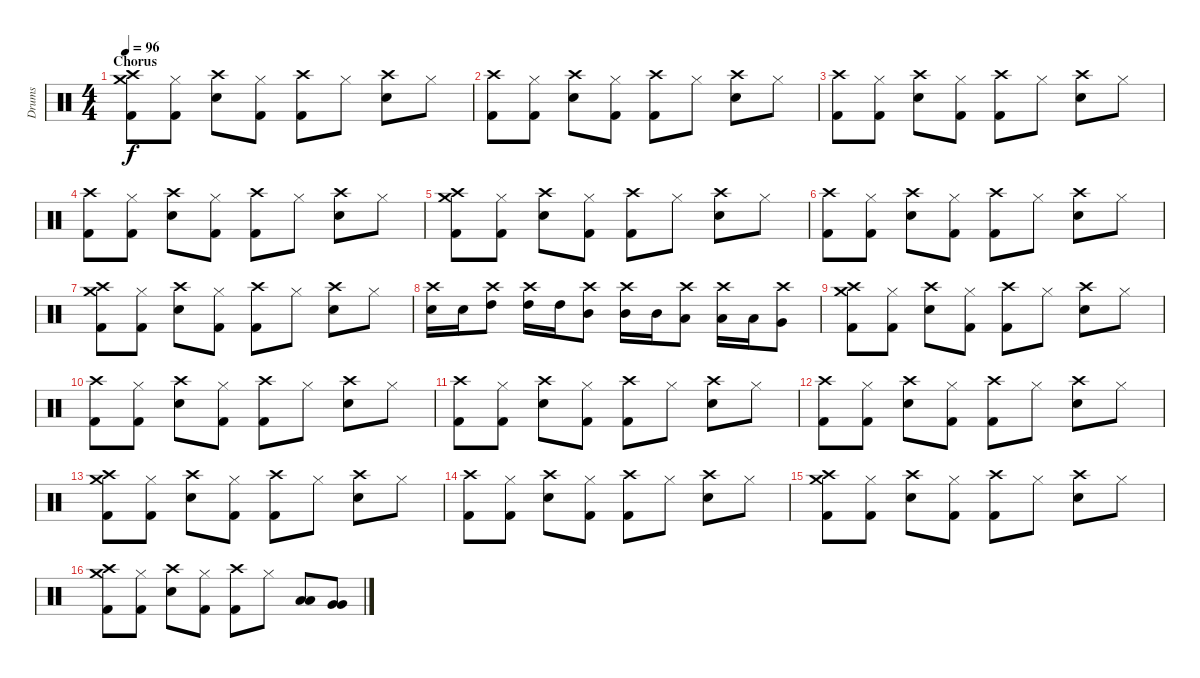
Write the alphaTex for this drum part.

\track ("Drums" "Drums") {instrument percussion}
\staff {score}
\articulation defaults
\ts (4 4)
\section ("" "Chorus")
\tempo 96
\clef neutral
\ks c
("Crash high (hit)" "Crash medium (hit)" "Kick (hit) 2").8{dy f} ("Hi-Hat (closed)" "Kick (hit) 2").8 ("Crash high (hit)" "Electric Snare (hit)").8 ("Hi-Hat (closed)" "Kick (hit) 2").8 ("Crash high (hit)" "Kick (hit) 2").8 "Hi-Hat (closed)".8 ("Crash high (hit)" "Electric Snare (hit)").8 "Hi-Hat (closed)".8 |
("Crash high (hit)" "Kick (hit) 2").8 ("Hi-Hat (closed)" "Kick (hit) 2").8 ("Crash high (hit)" "Electric Snare (hit)").8 ("Hi-Hat (closed)" "Kick (hit) 2").8 ("Crash high (hit)" "Kick (hit) 2").8 "Hi-Hat (closed)".8 ("Crash high (hit)" "Electric Snare (hit)").8 "Hi-Hat (closed)".8 |
("Crash high (hit)" "Kick (hit) 2").8 ("Hi-Hat (closed)" "Kick (hit) 2").8 ("Crash high (hit)" "Electric Snare (hit)").8 ("Hi-Hat (closed)" "Kick (hit) 2").8 ("Crash high (hit)" "Kick (hit) 2").8 "Hi-Hat (closed)".8 ("Crash high (hit)" "Electric Snare (hit)").8 "Hi-Hat (closed)".8 |
("Crash high (hit)" "Kick (hit) 2").8 ("Hi-Hat (closed)" "Kick (hit) 2").8 ("Crash high (hit)" "Electric Snare (hit)").8 ("Hi-Hat (closed)" "Kick (hit) 2").8 ("Crash high (hit)" "Kick (hit) 2").8 "Hi-Hat (closed)".8 ("Crash high (hit)" "Electric Snare (hit)").8 "Hi-Hat (closed)".8 |
("Crash high (hit)" "Crash medium (hit)" "Kick (hit) 2").8 ("Hi-Hat (closed)" "Kick (hit) 2").8 ("Crash high (hit)" "Electric Snare (hit)").8 ("Hi-Hat (closed)" "Kick (hit) 2").8 ("Crash high (hit)" "Kick (hit) 2").8 "Hi-Hat (closed)".8 ("Crash high (hit)" "Electric Snare (hit)").8 "Hi-Hat (closed)".8 |
("Crash high (hit)" "Kick (hit) 2").8 ("Hi-Hat (closed)" "Kick (hit) 2").8 ("Crash high (hit)" "Electric Snare (hit)").8 ("Hi-Hat (closed)" "Kick (hit) 2").8 ("Crash high (hit)" "Kick (hit) 2").8 "Hi-Hat (closed)".8 ("Crash high (hit)" "Electric Snare (hit)").8 "Hi-Hat (closed)".8 |
("Crash high (hit)" "Crash medium (hit)" "Kick (hit) 2").8 ("Hi-Hat (closed)" "Kick (hit) 2").8 ("Crash high (hit)" "Electric Snare (hit)").8 ("Hi-Hat (closed)" "Kick (hit) 2").8 ("Crash high (hit)" "Kick (hit) 2").8 "Hi-Hat (closed)".8 ("Crash high (hit)" "Electric Snare (hit)").8 "Hi-Hat (closed)".8 |
("Crash high (hit)" "Electric Snare (hit)").16 "Electric Snare (hit)".16 ("Crash high (hit)" "High Tom (hit)").8 ("Crash high (hit)" "High Tom (hit)").16 "High Tom (hit)".16 ("Crash high (hit)" "Mid Tom (hit)").8 ("Crash high (hit)" "Mid Tom (hit)").16 "Mid Tom (hit)".16 ("Crash high (hit)" "Low Tom (hit)").8 ("Crash high (hit)" "Low Tom (hit)").16 "Low Tom (hit)".16 ("Crash high (hit)" "Very Low Tom (hit)").8 |
("Crash high (hit)" "Crash medium (hit)" "Kick (hit) 2").8 ("Hi-Hat (closed)" "Kick (hit) 2").8 ("Crash high (hit)" "Electric Snare (hit)").8 ("Hi-Hat (closed)" "Kick (hit) 2").8 ("Crash high (hit)" "Kick (hit) 2").8 "Hi-Hat (closed)".8 ("Crash high (hit)" "Electric Snare (hit)").8 "Hi-Hat (closed)".8 |
("Crash high (hit)" "Kick (hit) 2").8 ("Hi-Hat (closed)" "Kick (hit) 2").8 ("Crash high (hit)" "Electric Snare (hit)").8 ("Hi-Hat (closed)" "Kick (hit) 2").8 ("Crash high (hit)" "Kick (hit) 2").8 "Hi-Hat (closed)".8 ("Crash high (hit)" "Electric Snare (hit)").8 "Hi-Hat (closed)".8 |
("Crash high (hit)" "Kick (hit) 2").8 ("Hi-Hat (closed)" "Kick (hit) 2").8 ("Crash high (hit)" "Electric Snare (hit)").8 ("Hi-Hat (closed)" "Kick (hit) 2").8 ("Crash high (hit)" "Kick (hit) 2").8 "Hi-Hat (closed)".8 ("Crash high (hit)" "Electric Snare (hit)").8 "Hi-Hat (closed)".8 |
("Crash high (hit)" "Kick (hit) 2").8 ("Hi-Hat (closed)" "Kick (hit) 2").8 ("Crash high (hit)" "Electric Snare (hit)").8 ("Hi-Hat (closed)" "Kick (hit) 2").8 ("Crash high (hit)" "Kick (hit) 2").8 "Hi-Hat (closed)".8 ("Crash high (hit)" "Electric Snare (hit)").8 "Hi-Hat (closed)".8 |
("Crash high (hit)" "Crash medium (hit)" "Kick (hit) 2").8 ("Hi-Hat (closed)" "Kick (hit) 2").8 ("Crash high (hit)" "Electric Snare (hit)").8 ("Hi-Hat (closed)" "Kick (hit) 2").8 ("Crash high (hit)" "Kick (hit) 2").8 "Hi-Hat (closed)".8 ("Crash high (hit)" "Electric Snare (hit)").8 "Hi-Hat (closed)".8 |
("Crash high (hit)" "Kick (hit) 2").8 ("Hi-Hat (closed)" "Kick (hit) 2").8 ("Crash high (hit)" "Electric Snare (hit)").8 ("Hi-Hat (closed)" "Kick (hit) 2").8 ("Crash high (hit)" "Kick (hit) 2").8 "Hi-Hat (closed)".8 ("Crash high (hit)" "Electric Snare (hit)").8 "Hi-Hat (closed)".8 |
("Crash high (hit)" "Crash medium (hit)" "Kick (hit) 2").8 ("Hi-Hat (closed)" "Kick (hit) 2").8 ("Crash high (hit)" "Electric Snare (hit)").8 ("Hi-Hat (closed)" "Kick (hit) 2").8 ("Crash high (hit)" "Kick (hit) 2").8 "Hi-Hat (closed)".8 ("Crash high (hit)" "Electric Snare (hit)").8 "Hi-Hat (closed)".8 |
("Crash high (hit)" "Crash medium (hit)" "Kick (hit) 2").8 ("Hi-Hat (closed)" "Kick (hit) 2").8 ("Crash high (hit)" "Electric Snare (hit)").8 ("Hi-Hat (closed)" "Kick (hit) 2").8 ("Crash high (hit)" "Kick (hit) 2").8 "Hi-Hat (closed)".8 ("Low Tom (hit)" "Low Tom (hit)").8 ("Very Low Tom (hit)" "Very Low Tom (hit)").8
